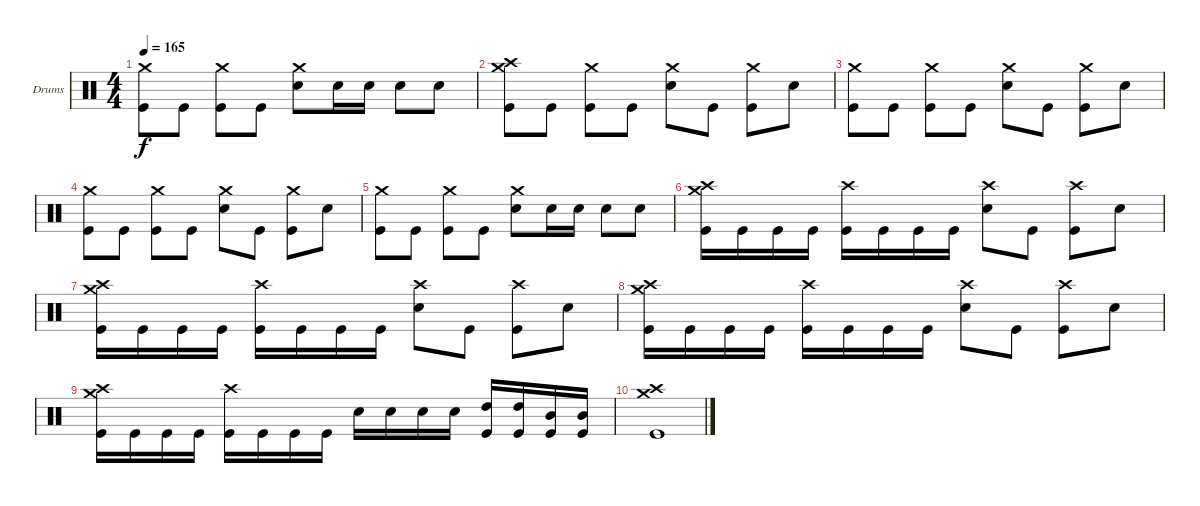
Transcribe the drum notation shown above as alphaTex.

\defaultSystemsLayout 4
\bracketExtendMode groupsimilarinstruments
\firstSystemTrackNameOrientation horizontal
\otherSystemsTrackNameOrientation horizontal
\track ("Drumkit" "Drums") {instrument percussion}
\staff {score}
\articulation defaults
\ts (4 4)
\tempo 165
\clef neutral
\ks c
("Kick (hit)" "Crash medium (hit)").8{dy f} "Kick (hit)".8 ("Kick (hit)" "Crash medium (hit)").8 "Kick (hit)".8 ("Snare (hit) 2" "Crash medium (hit)").8 "Snare (hit) 2".16 "Snare (hit) 2".16 "Snare (hit) 2".8 "Snare (hit) 2".8 |
("Kick (hit)" "Crash high (hit)" "Crash medium (hit)").8 "Kick (hit)".8 ("Kick (hit)" "Crash medium (hit)").8 "Kick (hit)".8 ("Snare (hit) 2" "Crash medium (hit)").8 "Kick (hit)".8 ("Kick (hit)" "Crash medium (hit)").8 "Snare (hit) 2".8 |
("Kick (hit)" "Crash medium (hit)").8 "Kick (hit)".8 ("Kick (hit)" "Crash medium (hit)").8 "Kick (hit)".8 ("Snare (hit) 2" "Crash medium (hit)").8 "Kick (hit)".8 ("Kick (hit)" "Crash medium (hit)").8 "Snare (hit) 2".8 |
("Kick (hit)" "Crash medium (hit)").8 "Kick (hit)".8 ("Kick (hit)" "Crash medium (hit)").8 "Kick (hit)".8 ("Snare (hit) 2" "Crash medium (hit)").8 "Kick (hit)".8 ("Kick (hit)" "Crash medium (hit)").8 "Snare (hit) 2".8 |
("Kick (hit)" "Crash medium (hit)").8 "Kick (hit)".8 ("Kick (hit)" "Crash medium (hit)").8 "Kick (hit)".8 ("Snare (hit) 2" "Crash medium (hit)").8 "Snare (hit) 2".16 "Snare (hit) 2".16 "Snare (hit) 2".8 "Snare (hit) 2".8 |
("Kick (hit)" "Crash medium (hit)" "Crash high (hit)").16 "Kick (hit)".16 "Kick (hit)".16 "Kick (hit)".16 ("Kick (hit)" "Crash high (hit)").16 "Kick (hit)".16 "Kick (hit)".16 "Kick (hit)".16 ("Snare (hit) 2" "Crash high (hit)").8 "Kick (hit)".8 ("Kick (hit)" "Crash high (hit)").8 "Snare (hit) 2".8 |
("Kick (hit)" "Crash medium (hit)" "Crash high (hit)").16 "Kick (hit)".16 "Kick (hit)".16 "Kick (hit)".16 ("Kick (hit)" "Crash high (hit)").16 "Kick (hit)".16 "Kick (hit)".16 "Kick (hit)".16 ("Snare (hit) 2" "Crash high (hit)").8 "Kick (hit)".8 ("Kick (hit)" "Crash high (hit)").8 "Snare (hit) 2".8 |
("Kick (hit)" "Crash medium (hit)" "Crash high (hit)").16 "Kick (hit)".16 "Kick (hit)".16 "Kick (hit)".16 ("Kick (hit)" "Crash high (hit)").16 "Kick (hit)".16 "Kick (hit)".16 "Kick (hit)".16 ("Snare (hit) 2" "Crash high (hit)").8 "Kick (hit)".8 ("Kick (hit)" "Crash high (hit)").8 "Snare (hit) 2".8 |
("Kick (hit)" "Crash medium (hit)" "Crash high (hit)").16 "Kick (hit)".16 "Kick (hit)".16 "Kick (hit)".16 ("Kick (hit)" "Crash high (hit)").16 "Kick (hit)".16 "Kick (hit)".16 "Kick (hit)".16 "Snare (hit) 2".16 "Snare (hit) 2".16 "Snare (hit) 2".16 "Snare (hit) 2".16 ("High Tom (hit)" "Kick (hit)").16 ("High Tom (hit)" "Kick (hit)").16 ("Mid Tom (hit)" "Kick (hit)").16 ("Mid Tom (hit)" "Kick (hit)").16 |
("Kick (hit)" "Crash medium (hit)" "Crash high (hit)").1
